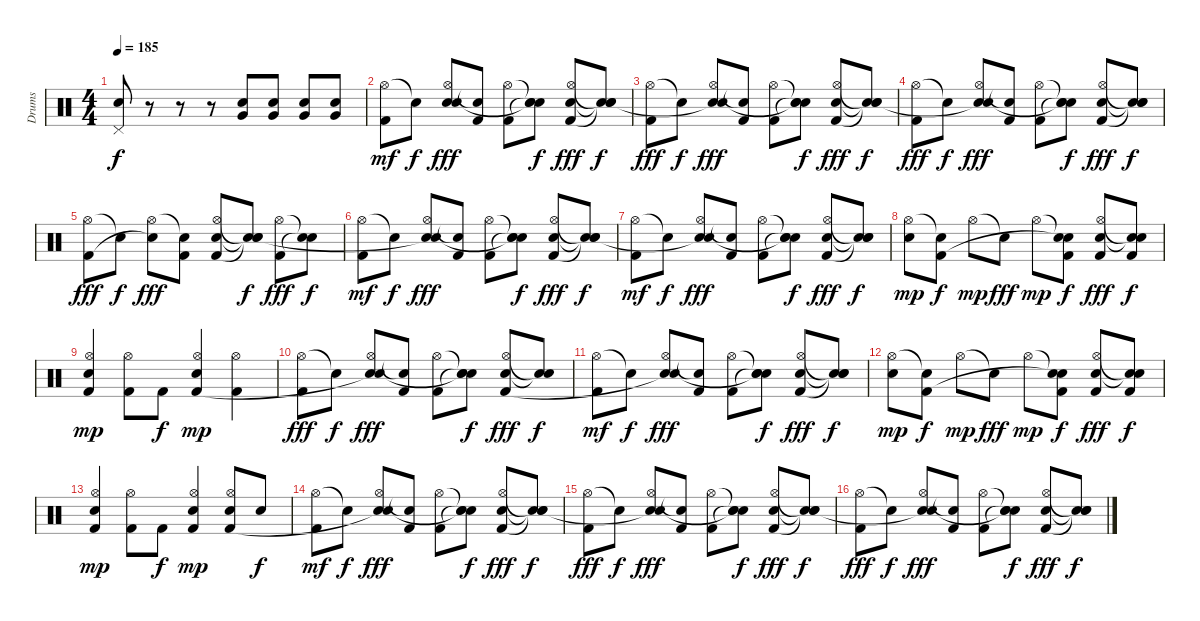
\track ("Drums" "Drums") {instrument percussion}
\staff {score}
\articulation defaults
\ts (4 4)
\tempo 185
\clef neutral
\ks c
("Pedal Hi-Hat (hit)" "Electric Snare (hit)").8{dy f} r.8 r.8 r.8 ("Electric Snare (hit)" "Very Low Tom (hit)").8 ("Electric Snare (hit)" "Very Low Tom (hit)").8 ("Electric Snare (hit)" "Very Low Tom (hit)").8 ("Electric Snare (hit)" "Very Low Tom (hit)").8 |
("Hi-Hat (open)" "Kick (hit) 2").8{dy mf} "Snare (hit)"{t}.8{dy f} ("Hi-Hat (open)" "Electric Snare (hit)" "Snare (hit)").8{dy fff} ("Snare (hit)"{t} "Kick (hit) 2").8 ("Hi-Hat (open)" "Kick (hit) 2").8 ("Snare (hit)"{t} "Snare (hit)"{t} "Snare (hit)"{t}).8{dy f} ("Hi-Hat (open)" "Electric Snare (hit)" "Kick (hit) 2").8{dy fff} ("Snare (hit)"{t} "Snare (hit)"{t} "Snare (hit)"{t}).8{dy f} |
("Hi-Hat (open)" "Kick (hit) 2").8{dy fff} "Snare (hit)"{t}.8{dy f} ("Hi-Hat (open)" "Electric Snare (hit)" "Snare (hit)"{t}).8{dy fff} ("Snare (hit)"{t} "Kick (hit) 2").8 ("Hi-Hat (open)" "Kick (hit) 2").8 ("Snare (hit)"{t} "Snare (hit)"{t} "Snare (hit)"{t}).8{dy f} ("Hi-Hat (open)" "Electric Snare (hit)" "Kick (hit) 2").8{dy fff} ("Snare (hit)"{t} "Snare (hit)"{t} "Snare (hit)"{t}).8{dy f} |
("Hi-Hat (open)" "Kick (hit) 2").8{dy fff} "Snare (hit)"{t}.8{dy f} ("Hi-Hat (open)" "Electric Snare (hit)" "Snare (hit)"{t}).8{dy fff} ("Snare (hit)"{t} "Kick (hit) 2").8 ("Hi-Hat (open)" "Kick (hit) 2").8 ("Snare (hit)"{t} "Snare (hit)"{t} "Snare (hit)"{t}).8{dy f} ("Hi-Hat (open)" "Electric Snare (hit)" "Kick (hit) 2").8{dy fff} ("Snare (hit)"{t} "Snare (hit)"{t} "Snare (hit)"{t}).8{dy f} |
("Hi-Hat (open)" "Kick (hit) 2").8{dy fff} "Snare (hit)"{t}.8{dy f} ("Hi-Hat (open)" "Snare (hit)"{t}).8{dy fff} ("Snare (hit)"{t} "Kick (hit) 2").8 ("Hi-Hat (open)" "Electric Snare (hit)" "Kick (hit) 2").8 ("Snare (hit)"{t} "Snare (hit)"{t} "Snare (hit)"{t}).8{dy f} ("Hi-Hat (open)" "Kick (hit) 2").8{dy fff} ("Snare (hit)"{t} "Snare (hit)"{t}).8{dy f} |
("Hi-Hat (open)" "Kick (hit) 2").8{dy mf} "Snare (hit)"{t}.8{dy f} ("Hi-Hat (open)" "Electric Snare (hit)" "Snare (hit)"{t}).8{dy fff} ("Snare (hit)"{t} "Kick (hit) 2").8 ("Hi-Hat (open)" "Kick (hit) 2").8 ("Snare (hit)"{t} "Snare (hit)"{t} "Snare (hit)"{t}).8{dy f} ("Hi-Hat (open)" "Electric Snare (hit)" "Kick (hit) 2").8{dy fff} ("Snare (hit)"{t} "Snare (hit)"{t} "Snare (hit)"{t}).8{dy f} |
("Hi-Hat (open)" "Kick (hit) 2").8{dy mf} "Snare (hit)"{t}.8{dy f} ("Hi-Hat (open)" "Electric Snare (hit)" "Snare (hit)"{t}).8{dy fff} ("Snare (hit)"{t} "Kick (hit) 2").8 ("Hi-Hat (open)" "Kick (hit) 2").8 ("Snare (hit)"{t} "Snare (hit)"{t} "Snare (hit)"{t}).8{dy f} ("Hi-Hat (open)" "Electric Snare (hit)" "Kick (hit) 2").8{dy fff} ("Snare (hit)"{t} "Snare (hit)"{t} "Snare (hit)"{t}).8{dy f} |
("Hi-Hat (open)" "Electric Snare (hit)").8{dy mp} ("Snare (hit)"{t} "Kick (hit) 2").8{dy f} "Hi-Hat (open)".8{dy mp} "Snare (hit)"{t}.8{dy fff} "Hi-Hat (open)".8{dy mp} ("Snare (hit)"{t} "Snare (hit)"{t} "Kick (hit) 2").8{dy f} ("Hi-Hat (open)" "Electric Snare (hit)" "Kick (hit) 2").8{dy fff} ("Snare (hit)"{t} "Snare (hit)"{t} "Kick (hit) 2").8{dy f} |
("Hi-Hat (open)" "Electric Snare (hit)" "Kick (hit) 2").4{dy mp} ("Hi-Hat (open)" "Kick (hit) 2").8 "Kick (hit) 2".8{dy f} ("Hi-Hat (open)" "Electric Snare (hit)" "Kick (hit) 2").4{dy mp} ("Hi-Hat (open)" "Kick (hit) 2").4 |
("Hi-Hat (open)" "Kick (hit) 2").8{dy fff} "Snare (hit)"{t}.8{dy f} ("Hi-Hat (open)" "Electric Snare (hit)" "Snare (hit)"{t}).8{dy fff} ("Snare (hit)"{t} "Kick (hit) 2").8 ("Hi-Hat (open)" "Kick (hit) 2").8 ("Snare (hit)"{t} "Snare (hit)"{t} "Snare (hit)"{t}).8{dy f} ("Hi-Hat (open)" "Electric Snare (hit)" "Kick (hit) 2").8{dy fff} ("Snare (hit)"{t} "Snare (hit)"{t}).8{dy f} |
("Hi-Hat (open)" "Kick (hit) 2").8{dy mf} "Snare (hit)"{t}.8{dy f} ("Hi-Hat (open)" "Electric Snare (hit)" "Snare (hit)"{t}).8{dy fff} ("Snare (hit)"{t} "Kick (hit) 2").8 ("Hi-Hat (open)" "Kick (hit) 2").8 ("Snare (hit)"{t} "Snare (hit)"{t} "Snare (hit)"{t}).8{dy f} ("Hi-Hat (open)" "Electric Snare (hit)" "Kick (hit) 2").8{dy fff} ("Snare (hit)"{t} "Snare (hit)"{t} "Snare (hit)"{t}).8{dy f} |
("Hi-Hat (open)" "Electric Snare (hit)").8{dy mp} ("Snare (hit)"{t} "Kick (hit) 2").8{dy f} "Hi-Hat (open)".8{dy mp} "Snare (hit)"{t}.8{dy fff} "Hi-Hat (open)".8{dy mp} ("Snare (hit)"{t} "Snare (hit)"{t} "Kick (hit) 2").8{dy f} ("Hi-Hat (open)" "Electric Snare (hit)" "Kick (hit) 2").8{dy fff} ("Snare (hit)"{t} "Snare (hit)"{t} "Kick (hit) 2").8{dy f} |
("Hi-Hat (open)" "Electric Snare (hit)" "Kick (hit) 2").4{dy mp} ("Hi-Hat (open)" "Kick (hit) 2").8 "Kick (hit) 2".8{dy f} ("Hi-Hat (open)" "Electric Snare (hit)" "Kick (hit) 2").4{dy mp} ("Hi-Hat (open)" "Electric Snare (hit)" "Kick (hit) 2").8 "Electric Snare (hit)".8{dy f} |
("Hi-Hat (open)" "Kick (hit) 2").8{dy mf} "Snare (hit)"{t}.8{dy f} ("Hi-Hat (open)" "Electric Snare (hit)" "Snare (hit)"{t}).8{dy fff} ("Snare (hit)"{t} "Kick (hit) 2").8 ("Hi-Hat (open)" "Kick (hit) 2").8 ("Snare (hit)"{t} "Snare (hit)"{t} "Snare (hit)"{t}).8{dy f} ("Hi-Hat (open)" "Electric Snare (hit)" "Kick (hit) 2").8{dy fff} ("Snare (hit)"{t} "Snare (hit)"{t} "Snare (hit)"{t}).8{dy f} |
("Hi-Hat (open)" "Kick (hit) 2").8{dy fff} "Snare (hit)"{t}.8{dy f} ("Hi-Hat (open)" "Electric Snare (hit)" "Snare (hit)"{t}).8{dy fff} ("Snare (hit)"{t} "Kick (hit) 2").8 ("Hi-Hat (open)" "Kick (hit) 2").8 ("Snare (hit)"{t} "Snare (hit)"{t} "Snare (hit)"{t}).8{dy f} ("Hi-Hat (open)" "Electric Snare (hit)" "Kick (hit) 2").8{dy fff} ("Snare (hit)"{t} "Snare (hit)"{t} "Snare (hit)"{t}).8{dy f} |
("Hi-Hat (open)" "Kick (hit) 2").8{dy fff} "Snare (hit)"{t}.8{dy f} ("Hi-Hat (open)" "Electric Snare (hit)" "Snare (hit)"{t}).8{dy fff} ("Snare (hit)"{t} "Kick (hit) 2").8 ("Hi-Hat (open)" "Kick (hit) 2").8 ("Snare (hit)"{t} "Snare (hit)"{t} "Snare (hit)"{t}).8{dy f} ("Hi-Hat (open)" "Electric Snare (hit)" "Kick (hit) 2").8{dy fff} ("Snare (hit)"{t} "Snare (hit)"{t} "Snare (hit)"{t}).8{dy f}
